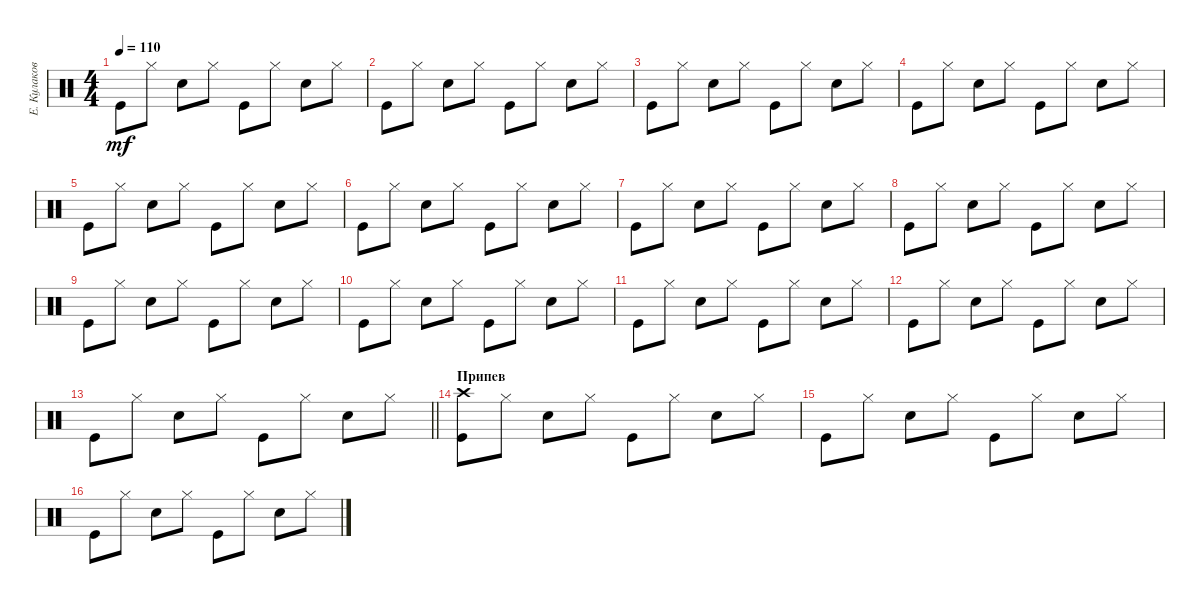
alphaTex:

\track ("Е. Кулаков" "Е. Кулаков") {instrument percussion}
\staff {score}
\articulation defaults
\ts (4 4)
\tempo 110
\clef neutral
\ks c "Kick (hit)".8{dy mf} "Hi-Hat (closed)".8 "Snare (hit) 2".8 "Hi-Hat (closed)".8 "Kick (hit)".8 "Hi-Hat (closed)".8 "Snare (hit) 2".8 "Hi-Hat (closed)".8
|
"Kick (hit)".8 "Hi-Hat (closed)".8 "Snare (hit) 2".8 "Hi-Hat (closed)".8 "Kick (hit)".8 "Hi-Hat (closed)".8 "Snare (hit) 2".8 "Hi-Hat (closed)".8 |
"Kick (hit)".8 "Hi-Hat (closed)".8 "Snare (hit) 2".8 "Hi-Hat (closed)".8 "Kick (hit)".8 "Hi-Hat (closed)".8 "Snare (hit) 2".8 "Hi-Hat (closed)".8 |
"Kick (hit)".8 "Hi-Hat (closed)".8 "Snare (hit) 2".8 "Hi-Hat (closed)".8 "Kick (hit)".8 "Hi-Hat (closed)".8 "Snare (hit) 2".8 "Hi-Hat (closed)".8 |
"Kick (hit)".8 "Hi-Hat (closed)".8 "Snare (hit) 2".8 "Hi-Hat (closed)".8 "Kick (hit)".8 "Hi-Hat (closed)".8 "Snare (hit) 2".8 "Hi-Hat (closed)".8 |
"Kick (hit)".8 "Hi-Hat (closed)".8 "Snare (hit) 2".8 "Hi-Hat (closed)".8 "Kick (hit)".8 "Hi-Hat (closed)".8 "Snare (hit) 2".8 "Hi-Hat (closed)".8 |
"Kick (hit)".8 "Hi-Hat (closed)".8 "Snare (hit) 2".8 "Hi-Hat (closed)".8 "Kick (hit)".8 "Hi-Hat (closed)".8 "Snare (hit) 2".8 "Hi-Hat (closed)".8 |
"Kick (hit)".8 "Hi-Hat (closed)".8 "Snare (hit) 2".8 "Hi-Hat (closed)".8 "Kick (hit)".8 "Hi-Hat (closed)".8 "Snare (hit) 2".8 "Hi-Hat (closed)".8 |
"Kick (hit)".8 "Hi-Hat (closed)".8 "Snare (hit) 2".8 "Hi-Hat (closed)".8 "Kick (hit)".8 "Hi-Hat (closed)".8 "Snare (hit) 2".8 "Hi-Hat (closed)".8 |
"Kick (hit)".8 "Hi-Hat (closed)".8 "Snare (hit) 2".8 "Hi-Hat (closed)".8 "Kick (hit)".8 "Hi-Hat (closed)".8 "Snare (hit) 2".8 "Hi-Hat (closed)".8 |
"Kick (hit)".8 "Hi-Hat (closed)".8 "Snare (hit) 2".8 "Hi-Hat (closed)".8 "Kick (hit)".8 "Hi-Hat (closed)".8 "Snare (hit) 2".8 "Hi-Hat (closed)".8 |
"Kick (hit)".8 "Hi-Hat (closed)".8 "Snare (hit) 2".8 "Hi-Hat (closed)".8 "Kick (hit)".8 "Hi-Hat (closed)".8 "Snare (hit) 2".8 "Hi-Hat (closed)".8 |
\barLineRight lightlight "Kick (hit)".8 "Hi-Hat (closed)".8 "Snare (hit) 2".8 "Hi-Hat (closed)".8 "Kick (hit)".8 "Hi-Hat (closed)".8 "Snare (hit) 2".8 "Hi-Hat (closed)".8
|
\section ("" "Припев")
("Kick (hit)" "Crash high (hit)").8 "Hi-Hat (closed)".8 "Snare (hit) 2".8 "Hi-Hat (closed)".8 "Kick (hit)".8 "Hi-Hat (closed)".8 "Snare (hit) 2".8 "Hi-Hat (closed)".8 |
"Kick (hit)".8 "Hi-Hat (closed)".8 "Snare (hit) 2".8 "Hi-Hat (closed)".8 "Kick (hit)".8 "Hi-Hat (closed)".8 "Snare (hit) 2".8 "Hi-Hat (closed)".8 |
"Kick (hit)".8 "Hi-Hat (closed)".8 "Snare (hit) 2".8 "Hi-Hat (closed)".8 "Kick (hit)".8 "Hi-Hat (closed)".8 "Snare (hit) 2".8 "Hi-Hat (closed)".8
